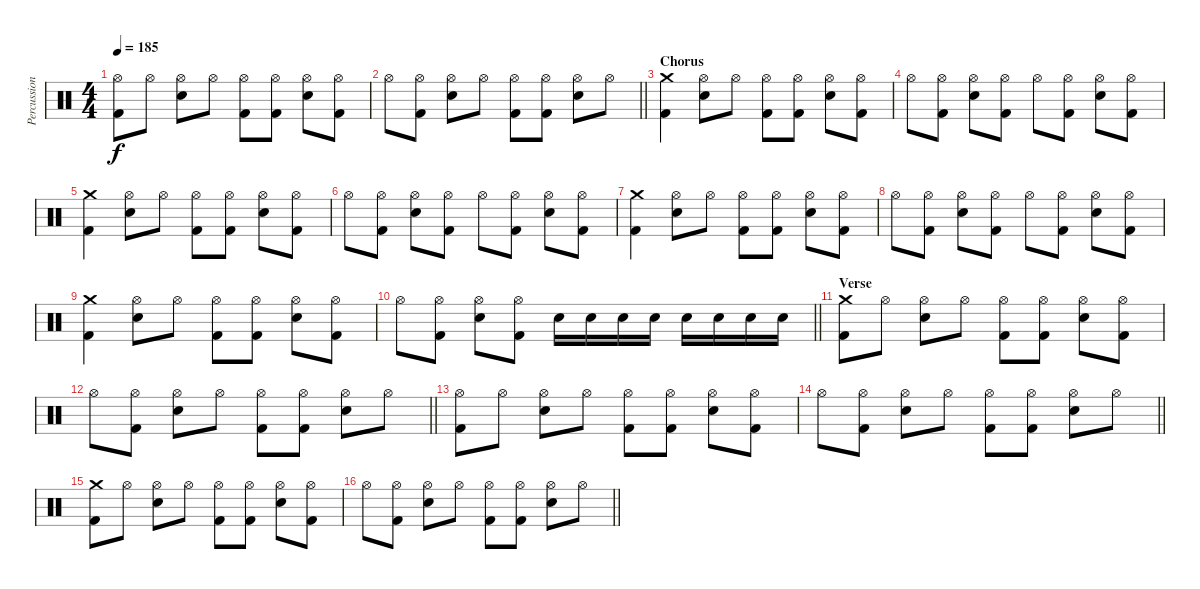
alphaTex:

\track ("Percussion" "Percussion") {instrument percussion}
\staff {score}
\articulation defaults
\ts (4 4)
\tempo 185
\clef neutral
\ks c
("Hi-Hat (open)" "Kick (hit) 2").8{dy f} "Hi-Hat (open)".8 ("Hi-Hat (open)" "Electric Snare (hit)").8 "Hi-Hat (open)".8 ("Hi-Hat (open)" "Kick (hit) 2").8 ("Hi-Hat (open)" "Kick (hit) 2").8 ("Hi-Hat (open)" "Electric Snare (hit)").8 ("Hi-Hat (open)" "Kick (hit) 2").8 |
\barLineRight lightlight "Hi-Hat (open)".8
("Hi-Hat (open)" "Kick (hit) 2").8 ("Hi-Hat (open)" "Electric Snare (hit)").8 "Hi-Hat (open)".8 ("Hi-Hat (open)" "Kick (hit) 2").8 ("Hi-Hat (open)" "Kick (hit) 2").8 ("Hi-Hat (open)" "Electric Snare (hit)").8 "Hi-Hat (open)".8 |
\section ("" "Chorus")
("Crash medium (hit)" "Kick (hit) 2").4 ("Hi-Hat (open)" "Electric Snare (hit)").8 "Hi-Hat (open)".8 ("Hi-Hat (open)" "Kick (hit) 2").8 ("Hi-Hat (open)" "Kick (hit) 2").8 ("Hi-Hat (open)" "Electric Snare (hit)").8 ("Hi-Hat (open)" "Kick (hit) 2").8 |
"Hi-Hat (open)".8 ("Hi-Hat (open)" "Kick (hit) 2").8 ("Hi-Hat (open)" "Electric Snare (hit)").8 ("Hi-Hat (open)" "Kick (hit) 2").8 "Hi-Hat (open)".8 ("Hi-Hat (open)" "Kick (hit) 2").8 ("Hi-Hat (open)" "Electric Snare (hit)").8 ("Hi-Hat (open)" "Kick (hit) 2").8 |
("Crash medium (hit)" "Kick (hit) 2").4 ("Hi-Hat (open)" "Electric Snare (hit)").8 "Hi-Hat (open)".8 ("Hi-Hat (open)" "Kick (hit) 2").8 ("Hi-Hat (open)" "Kick (hit) 2").8 ("Hi-Hat (open)" "Electric Snare (hit)").8 ("Hi-Hat (open)" "Kick (hit) 2").8 |
"Hi-Hat (open)".8 ("Hi-Hat (open)" "Kick (hit) 2").8 ("Hi-Hat (open)" "Electric Snare (hit)").8 ("Hi-Hat (open)" "Kick (hit) 2").8 "Hi-Hat (open)".8 ("Hi-Hat (open)" "Kick (hit) 2").8 ("Hi-Hat (open)" "Electric Snare (hit)").8 ("Hi-Hat (open)" "Kick (hit) 2").8 |
("Crash medium (hit)" "Kick (hit) 2").4 ("Hi-Hat (open)" "Electric Snare (hit)").8 "Hi-Hat (open)".8 ("Hi-Hat (open)" "Kick (hit) 2").8 ("Hi-Hat (open)" "Kick (hit) 2").8 ("Hi-Hat (open)" "Electric Snare (hit)").8 ("Hi-Hat (open)" "Kick (hit) 2").8 |
"Hi-Hat (open)".8 ("Hi-Hat (open)" "Kick (hit) 2").8 ("Hi-Hat (open)" "Electric Snare (hit)").8 ("Hi-Hat (open)" "Kick (hit) 2").8 "Hi-Hat (open)".8 ("Hi-Hat (open)" "Kick (hit) 2").8 ("Hi-Hat (open)" "Electric Snare (hit)").8 ("Hi-Hat (open)" "Kick (hit) 2").8 |
("Crash medium (hit)" "Kick (hit) 2").4 ("Hi-Hat (open)" "Electric Snare (hit)").8 "Hi-Hat (open)".8 ("Hi-Hat (open)" "Kick (hit) 2").8 ("Hi-Hat (open)" "Kick (hit) 2").8 ("Hi-Hat (open)" "Electric Snare (hit)").8 ("Hi-Hat (open)" "Kick (hit) 2").8 |
\barLineRight lightlight "Hi-Hat (open)".8
("Hi-Hat (open)" "Kick (hit) 2").8 ("Hi-Hat (open)" "Electric Snare (hit)").8 ("Hi-Hat (open)" "Kick (hit) 2").8 "Electric Snare (hit)".16 "Electric Snare (hit)".16 "Electric Snare (hit)".16 "Electric Snare (hit)".16 "Electric Snare (hit)".16 "Electric Snare (hit)".16 "Electric Snare (hit)".16 "Electric Snare (hit)".16 |
\section ("" "Verse")
("Crash medium (hit)" "Kick (hit) 2").8 "Hi-Hat (open)".8 ("Hi-Hat (open)" "Electric Snare (hit)").8 "Hi-Hat (open)".8 ("Hi-Hat (open)" "Kick (hit) 2").8 ("Hi-Hat (open)" "Kick (hit) 2").8 ("Hi-Hat (open)" "Electric Snare (hit)").8 ("Hi-Hat (open)" "Kick (hit) 2").8 |
\barLineRight lightlight "Hi-Hat (open)".8
("Hi-Hat (open)" "Kick (hit) 2").8 ("Hi-Hat (open)" "Electric Snare (hit)").8 "Hi-Hat (open)".8 ("Hi-Hat (open)" "Kick (hit) 2").8 ("Hi-Hat (open)" "Kick (hit) 2").8 ("Hi-Hat (open)" "Electric Snare (hit)").8 "Hi-Hat (open)".8 |
("Hi-Hat (open)" "Kick (hit) 2").8 "Hi-Hat (open)".8 ("Hi-Hat (open)" "Electric Snare (hit)").8 "Hi-Hat (open)".8 ("Hi-Hat (open)" "Kick (hit) 2").8 ("Hi-Hat (open)" "Kick (hit) 2").8 ("Hi-Hat (open)" "Electric Snare (hit)").8 ("Hi-Hat (open)" "Kick (hit) 2").8 |
\barLineRight lightlight "Hi-Hat (open)".8
("Hi-Hat (open)" "Kick (hit) 2").8 ("Hi-Hat (open)" "Electric Snare (hit)").8 "Hi-Hat (open)".8 ("Hi-Hat (open)" "Kick (hit) 2").8 ("Hi-Hat (open)" "Kick (hit) 2").8 ("Hi-Hat (open)" "Electric Snare (hit)").8 "Hi-Hat (open)".8 |
("Crash medium (hit)" "Kick (hit) 2").8 "Hi-Hat (open)".8 ("Hi-Hat (open)" "Electric Snare (hit)").8 "Hi-Hat (open)".8 ("Hi-Hat (open)" "Kick (hit) 2").8 ("Hi-Hat (open)" "Kick (hit) 2").8 ("Hi-Hat (open)" "Electric Snare (hit)").8 ("Hi-Hat (open)" "Kick (hit) 2").8 |
\barLineRight lightlight "Hi-Hat (open)".8
("Hi-Hat (open)" "Kick (hit) 2").8 ("Hi-Hat (open)" "Electric Snare (hit)").8 "Hi-Hat (open)".8 ("Hi-Hat (open)" "Kick (hit) 2").8 ("Hi-Hat (open)" "Kick (hit) 2").8 ("Hi-Hat (open)" "Electric Snare (hit)").8 "Hi-Hat (open)".8
